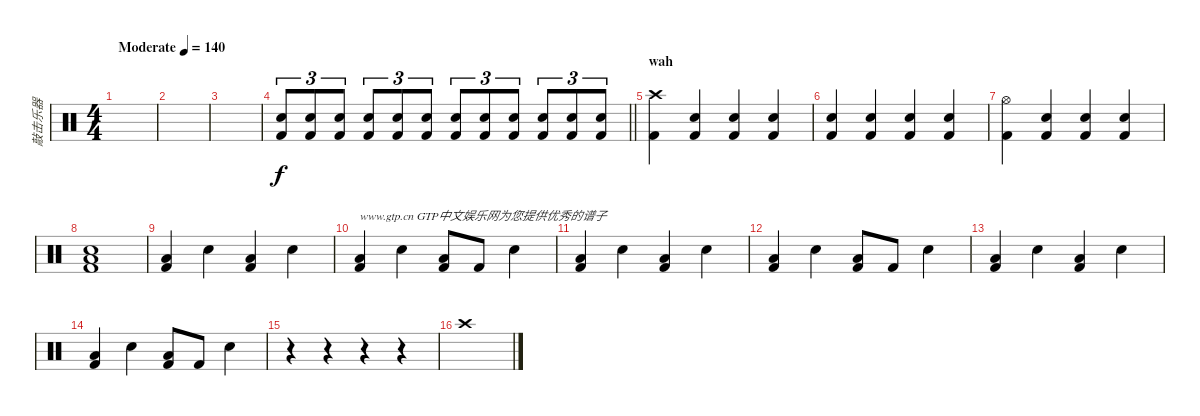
\track ("敲击乐器" "敲击乐器") {instrument percussion}
\staff {score}
\articulation defaults
\ts (4 4)
\tempo (140 "Moderate")
\clef neutral
\ks c
|
|
|
\barLineRight lightlight
("Electric Snare (hit)" "Kick (hit) 2").8{tu (3 2)} ("Electric Snare (hit)" "Kick (hit) 2").8{tu (3 2)} ("Electric Snare (hit)" "Kick (hit) 2").8{tu (3 2)} ("Electric Snare (hit)" "Kick (hit) 2").8{tu (3 2)} ("Electric Snare (hit)" "Kick (hit) 2").8{tu (3 2)} ("Electric Snare (hit)" "Kick (hit) 2").8{tu (3 2)} ("Electric Snare (hit)" "Kick (hit) 2").8{tu (3 2)} ("Electric Snare (hit)" "Kick (hit) 2").8{tu (3 2)} ("Electric Snare (hit)" "Kick (hit) 2").8{tu (3 2)} ("Electric Snare (hit)" "Kick (hit) 2").8{tu (3 2)} ("Electric Snare (hit)" "Kick (hit) 2").8{tu (3 2)} ("Electric Snare (hit)" "Kick (hit) 2").8{tu (3 2)} |
\section ("" "wah")
("Crash high (hit)" "Kick (hit) 2").4 ("Electric Snare (hit)" "Kick (hit) 2").4 ("Electric Snare (hit)" "Kick (hit) 2").4 ("Electric Snare (hit)" "Kick (hit) 2").4 |
("Electric Snare (hit)" "Kick (hit) 2").4 ("Electric Snare (hit)" "Kick (hit) 2").4 ("Electric Snare (hit)" "Kick (hit) 2").4 ("Electric Snare (hit)" "Kick (hit) 2").4 |
("Hi-Hat (open)" "Kick (hit) 2").4 ("Electric Snare (hit)" "Kick (hit) 2").4 ("Electric Snare (hit)" "Kick (hit) 2").4 ("Electric Snare (hit)" "Kick (hit) 2").4 |
("Low Floor Tom (hit)" "Electric Snare (hit)" "Kick (hit) 2").1 |
("Low Tom (hit)" "Kick (hit) 2").4 "Electric Snare (hit)".4 ("Low Tom (hit)" "Kick (hit) 2").4 "Electric Snare (hit)".4 |
("Low Tom (hit)" "Kick (hit) 2").4{txt "www.gtp.cn GTP中文娱乐网为您提供优秀的谱子"} "Electric Snare (hit)".4 ("Low Tom (hit)" "Kick (hit) 2").8 "Kick (hit) 2".8 "Electric Snare (hit)".4 |
("Low Tom (hit)" "Kick (hit) 2").4 "Electric Snare (hit)".4 ("Low Tom (hit)" "Kick (hit) 2").4 "Electric Snare (hit)".4 |
("Low Tom (hit)" "Kick (hit) 2").4 "Electric Snare (hit)".4 ("Low Tom (hit)" "Kick (hit) 2").8 "Kick (hit) 2".8 "Electric Snare (hit)".4 |
("Low Tom (hit)" "Kick (hit) 2").4 "Electric Snare (hit)".4 ("Low Tom (hit)" "Kick (hit) 2").4 "Electric Snare (hit)".4 |
("Low Tom (hit)" "Kick (hit) 2").4 "Electric Snare (hit)".4 ("Low Tom (hit)" "Kick (hit) 2").8 "Kick (hit) 2".8 "Electric Snare (hit)".4 |
r.4 r.4 r.4 r.4 |
"Crash high (hit)".1
